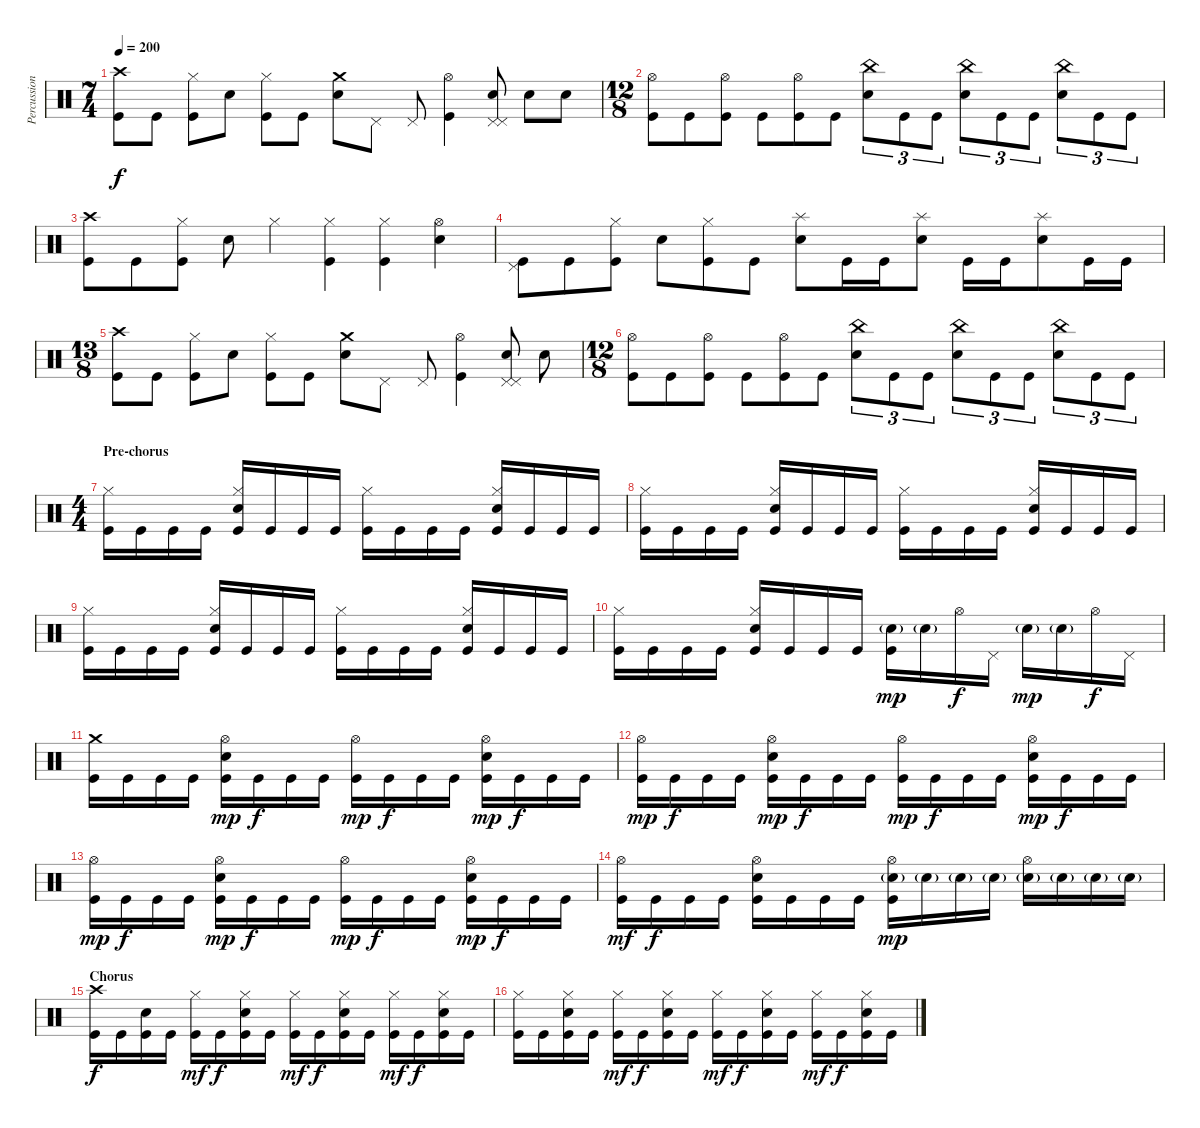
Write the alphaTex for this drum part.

\track ("Percussion" "Percussion") {instrument percussion}
\staff {score}
\articulation defaults
\ts (7 4)
\tempo 200
\clef neutral
\ks c
("Crash high (hit)" "Kick (hit)").8{dy f} "Kick (hit)".8 ("Hi-Hat (closed)" "Kick (hit)").8 "Electric Snare (hit)".8 ("Hi-Hat (closed)" "Kick (hit)").8 "Kick (hit)".8 ("Crash medium (hit)" "Electric Snare (hit)").8 "Pedal Hi-Hat (hit)".8 "Pedal Hi-Hat (hit)".8 ("Hi-Hat (open)" "Kick (hit)").4 ("Pedal Hi-Hat (hit)" "Electric Snare (hit)" "Pedal Hi-Hat (hit)").8 "Electric Snare (hit)".8 "Electric Snare (hit)".8 |
\ts (12 8)
("Hi-Hat (open)" "Kick (hit)").8 "Kick (hit)".8 ("Hi-Hat (open)" "Kick (hit)").8 "Kick (hit)".8 ("Hi-Hat (open)" "Kick (hit)").8 "Kick (hit)".8 ("China (hit)" "Electric Snare (hit)").8{tu (3 2)} "Kick (hit)".8{tu (3 2)} "Kick (hit)".8{tu (3 2)} ("China (hit)" "Electric Snare (hit)").8{tu (3 2)} "Kick (hit)".8{tu (3 2)} "Kick (hit)".8{tu (3 2)} ("China (hit)" "Electric Snare (hit)").8{tu (3 2)} "Kick (hit)".8{tu (3 2)} "Kick (hit)".8{tu (3 2)} |
("Crash high (hit)" "Kick (hit)").8 "Kick (hit)".8 ("Hi-Hat (closed)" "Kick (hit)").8 "Electric Snare (hit)".8 "Hi-Hat (closed)".4 ("Hi-Hat (closed)" "Kick (hit)").4 ("Hi-Hat (closed)" "Kick (hit)").4 ("Hi-Hat (open)" "Electric Snare (hit)").4 |
("Pedal Hi-Hat (hit)" "Kick (hit)").8 "Kick (hit)".8 ("Hi-Hat (closed)" "Kick (hit)").8 "Electric Snare (hit)".8 ("Hi-Hat (closed)" "Kick (hit)").8 "Kick (hit)".8 ("Splash (hit)" "Electric Snare (hit)").8 "Kick (hit)".16 "Kick (hit)".16 ("Splash (hit)" "Electric Snare (hit)").8 "Kick (hit)".16 "Kick (hit)".16 ("Splash (hit)" "Electric Snare (hit)").8 "Kick (hit)".16 "Kick (hit)".16 |
\ts (13 8)
("Crash high (hit)" "Kick (hit)").8 "Kick (hit)".8 ("Hi-Hat (closed)" "Kick (hit)").8 "Electric Snare (hit)".8 ("Hi-Hat (closed)" "Kick (hit)").8 "Kick (hit)".8 ("Crash medium (hit)" "Electric Snare (hit)").8 "Pedal Hi-Hat (hit)".8 "Pedal Hi-Hat (hit)".8 ("Hi-Hat (open)" "Kick (hit)").4 ("Pedal Hi-Hat (hit)" "Electric Snare (hit)" "Pedal Hi-Hat (hit)").8 "Electric Snare (hit)".8 |
\ts (12 8)
("Hi-Hat (open)" "Kick (hit)").8 "Kick (hit)".8 ("Hi-Hat (open)" "Kick (hit)").8 "Kick (hit)".8 ("Hi-Hat (open)" "Kick (hit)").8 "Kick (hit)".8 ("China (hit)" "Electric Snare (hit)").8{tu (3 2)} "Kick (hit)".8{tu (3 2)} "Kick (hit)".8{tu (3 2)} ("China (hit)" "Electric Snare (hit)").8{tu (3 2)} "Kick (hit)".8{tu (3 2)} "Kick (hit)".8{tu (3 2)} ("China (hit)" "Electric Snare (hit)").8{tu (3 2)} "Kick (hit)".8{tu (3 2)} "Kick (hit)".8{tu (3 2)} |
\ts (4 4)
\section ("" "Pre-chorus")
("Hi-Hat (closed)" "Kick (hit)").16 "Kick (hit)".16 "Kick (hit)".16 "Kick (hit)".16 ("Hi-Hat (closed)" "Electric Snare (hit)" "Kick (hit)").16 "Kick (hit)".16 "Kick (hit)".16 "Kick (hit)".16 ("Hi-Hat (closed)" "Kick (hit)").16 "Kick (hit)".16 "Kick (hit)".16 "Kick (hit)".16 ("Hi-Hat (closed)" "Electric Snare (hit)" "Kick (hit)").16 "Kick (hit)".16 "Kick (hit)".16 "Kick (hit)".16 |
("Hi-Hat (closed)" "Kick (hit)").16 "Kick (hit)".16 "Kick (hit)".16 "Kick (hit)".16 ("Hi-Hat (closed)" "Electric Snare (hit)" "Kick (hit)").16 "Kick (hit)".16 "Kick (hit)".16 "Kick (hit)".16 ("Hi-Hat (closed)" "Kick (hit)").16 "Kick (hit)".16 "Kick (hit)".16 "Kick (hit)".16 ("Hi-Hat (closed)" "Electric Snare (hit)" "Kick (hit)").16 "Kick (hit)".16 "Kick (hit)".16 "Kick (hit)".16 |
("Hi-Hat (closed)" "Kick (hit)").16 "Kick (hit)".16 "Kick (hit)".16 "Kick (hit)".16 ("Hi-Hat (closed)" "Electric Snare (hit)" "Kick (hit)").16 "Kick (hit)".16 "Kick (hit)".16 "Kick (hit)".16 ("Hi-Hat (closed)" "Kick (hit)").16 "Kick (hit)".16 "Kick (hit)".16 "Kick (hit)".16 ("Hi-Hat (closed)" "Electric Snare (hit)" "Kick (hit)").16 "Kick (hit)".16 "Kick (hit)".16 "Kick (hit)".16 |
("Hi-Hat (closed)" "Kick (hit)").16 "Kick (hit)".16 "Kick (hit)".16 "Kick (hit)".16 ("Hi-Hat (closed)" "Electric Snare (hit)" "Kick (hit)").16 "Kick (hit)".16 "Kick (hit)".16 "Kick (hit)".16 ("Electric Snare (hit)"{g} "Kick (hit)").16{dy mp} "Electric Snare (hit)"{g}.16 "Hi-Hat (open)".16{dy f} "Pedal Hi-Hat (hit)".16 "Electric Snare (hit)"{g}.16{dy mp} "Electric Snare (hit)"{g}.16 "Hi-Hat (open)".16{dy f} "Pedal Hi-Hat (hit)".16 |
("Crash medium (hit)" "Kick (hit)").16 "Kick (hit)".16 "Kick (hit)".16 "Kick (hit)".16 ("Hi-Hat (open)" "Electric Snare (hit)" "Kick (hit)").16{dy mp} "Kick (hit)".16{dy f} "Kick (hit)".16 "Kick (hit)".16 ("Hi-Hat (open)" "Kick (hit)").16{dy mp} "Kick (hit)".16{dy f} "Kick (hit)".16 "Kick (hit)".16 ("Hi-Hat (open)" "Electric Snare (hit)" "Kick (hit)").16{dy mp} "Kick (hit)".16{dy f} "Kick (hit)".16 "Kick (hit)".16 |
("Hi-Hat (open)" "Kick (hit)").16{dy mp} "Kick (hit)".16{dy f} "Kick (hit)".16 "Kick (hit)".16 ("Hi-Hat (open)" "Electric Snare (hit)" "Kick (hit)").16{dy mp} "Kick (hit)".16{dy f} "Kick (hit)".16 "Kick (hit)".16 ("Hi-Hat (open)" "Kick (hit)").16{dy mp} "Kick (hit)".16{dy f} "Kick (hit)".16 "Kick (hit)".16 ("Hi-Hat (open)" "Electric Snare (hit)" "Kick (hit)").16{dy mp} "Kick (hit)".16{dy f} "Kick (hit)".16 "Kick (hit)".16 |
("Hi-Hat (open)" "Kick (hit)").16{dy mp} "Kick (hit)".16{dy f} "Kick (hit)".16 "Kick (hit)".16 ("Hi-Hat (open)" "Electric Snare (hit)" "Kick (hit)").16{dy mp} "Kick (hit)".16{dy f} "Kick (hit)".16 "Kick (hit)".16 ("Hi-Hat (open)" "Kick (hit)").16{dy mp} "Kick (hit)".16{dy f} "Kick (hit)".16 "Kick (hit)".16 ("Hi-Hat (open)" "Electric Snare (hit)" "Kick (hit)").16{dy mp} "Kick (hit)".16{dy f} "Kick (hit)".16 "Kick (hit)".16 |
("Hi-Hat (open)" "Kick (hit)").16{dy mf} "Kick (hit)".16{dy f} "Kick (hit)".16 "Kick (hit)".16 ("Hi-Hat (open)" "Electric Snare (hit)" "Kick (hit)").16 "Kick (hit)".16 "Kick (hit)".16 "Kick (hit)".16 ("Hi-Hat (open)" "Electric Snare (hit)"{g} "Kick (hit)").16{dy mp} "Electric Snare (hit)"{g}.16 "Electric Snare (hit)"{g}.16 "Electric Snare (hit)"{g}.16 ("Hi-Hat (open)" "Electric Snare (hit)"{g}).16 "Electric Snare (hit)"{g}.16 "Electric Snare (hit)"{g}.16 "Electric Snare (hit)"{g}.16 |
\section ("" "Chorus")
("Crash high (hit)" "Kick (hit)").16{dy f} "Kick (hit)".16 ("Electric Snare (hit)" "Kick (hit)").16 "Kick (hit)".16 ("Hi-Hat (closed)" "Kick (hit)").16{dy mf} "Kick (hit)".16{dy f} ("Hi-Hat (closed)" "Electric Snare (hit)" "Kick (hit)").16 "Kick (hit)".16 ("Hi-Hat (closed)" "Kick (hit)").16{dy mf} "Kick (hit)".16{dy f} ("Hi-Hat (closed)" "Electric Snare (hit)" "Kick (hit)").16 "Kick (hit)".16 ("Hi-Hat (closed)" "Kick (hit)").16{dy mf} "Kick (hit)".16{dy f} ("Hi-Hat (closed)" "Electric Snare (hit)" "Kick (hit)").16 "Kick (hit)".16 |
("Hi-Hat (closed)" "Kick (hit)").16 "Kick (hit)".16 ("Hi-Hat (closed)" "Electric Snare (hit)" "Kick (hit)").16 "Kick (hit)".16 ("Hi-Hat (closed)" "Kick (hit)").16{dy mf} "Kick (hit)".16{dy f} ("Hi-Hat (closed)" "Electric Snare (hit)" "Kick (hit)").16 "Kick (hit)".16 ("Hi-Hat (closed)" "Kick (hit)").16{dy mf} "Kick (hit)".16{dy f} ("Hi-Hat (closed)" "Electric Snare (hit)" "Kick (hit)").16 "Kick (hit)".16 ("Hi-Hat (closed)" "Kick (hit)").16{dy mf} "Kick (hit)".16{dy f} ("Hi-Hat (closed)" "Electric Snare (hit)" "Kick (hit)").16 "Kick (hit)".16
